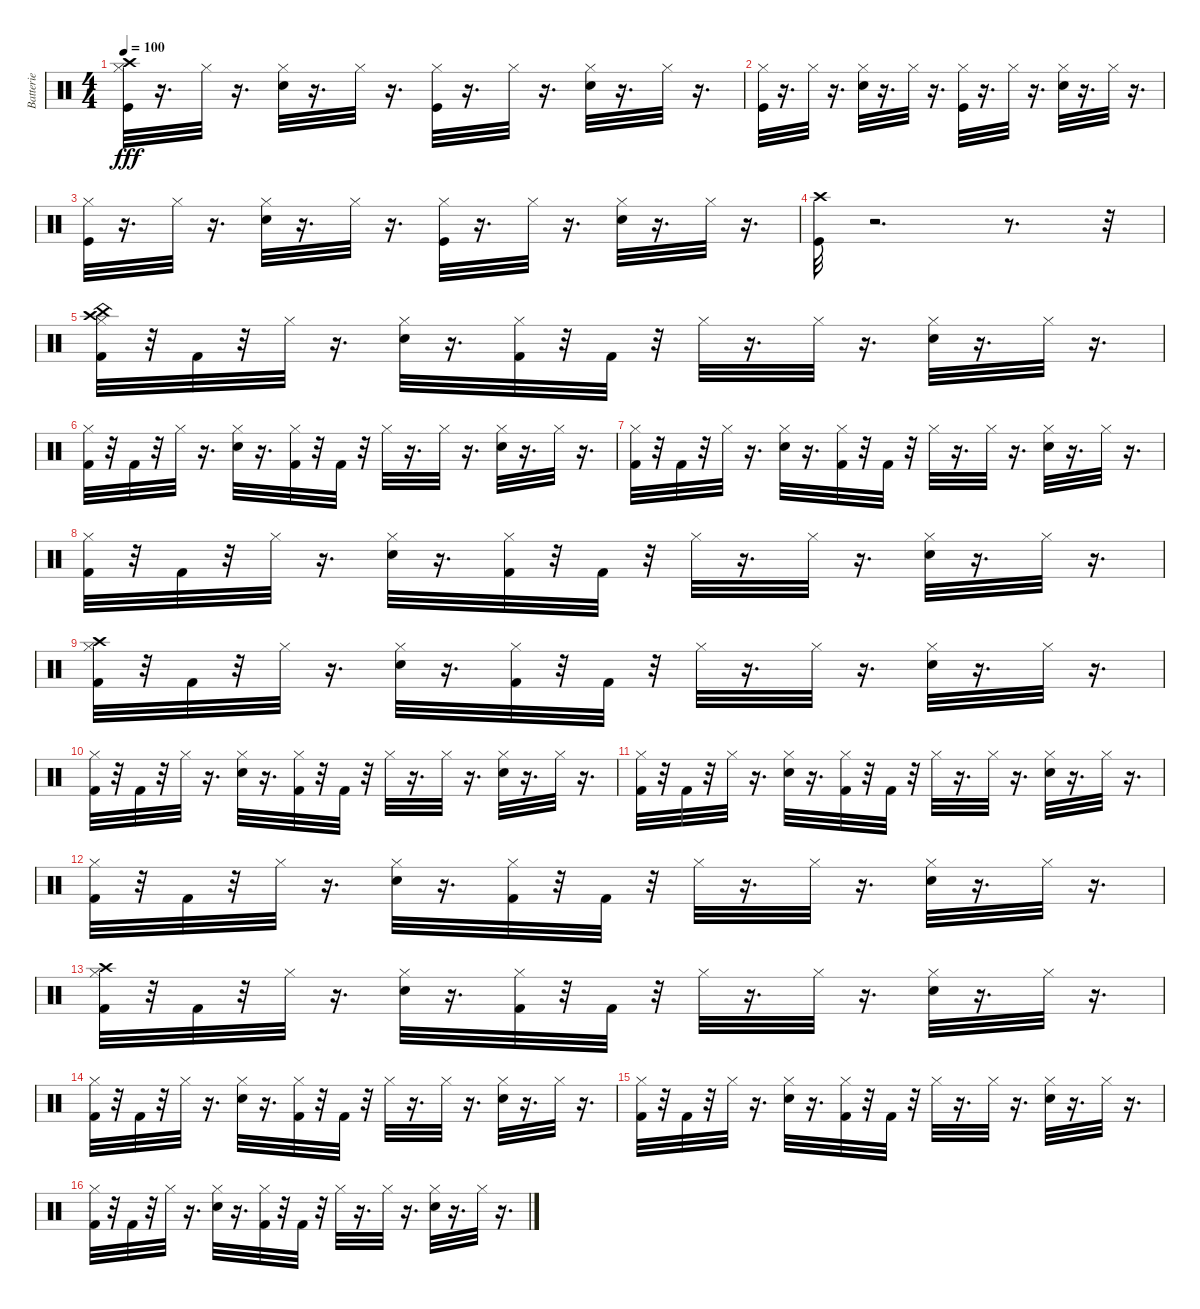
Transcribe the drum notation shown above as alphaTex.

\track ("Batterie" "Batterie") {instrument percussion}
\staff {score}
\articulation defaults
\ts (4 4)
\tempo 100
\clef neutral
\ks c
("Crash high (hit)" "Hi-Hat (closed)" "Kick (hit)").32{dy fff} r.16{d} "Hi-Hat (closed)".32 r.16{d} ("Hi-Hat (closed)" "Snare (hit) 2").32 r.16{d} "Hi-Hat (closed)".32 r.16{d} ("Hi-Hat (closed)" "Kick (hit)").32 r.16{d} "Hi-Hat (closed)".32 r.16{d} ("Hi-Hat (closed)" "Snare (hit) 2").32 r.16{d} "Hi-Hat (closed)".32 r.16{d} |
("Hi-Hat (closed)" "Kick (hit)").32 r.16{d} "Hi-Hat (closed)".32 r.16{d} ("Hi-Hat (closed)" "Snare (hit) 2").32 r.16{d} "Hi-Hat (closed)".32 r.16{d} ("Hi-Hat (closed)" "Kick (hit)").32 r.16{d} "Hi-Hat (closed)".32 r.16{d} ("Hi-Hat (closed)" "Snare (hit) 2").32 r.16{d} "Hi-Hat (closed)".32 r.16{d} |
("Hi-Hat (closed)" "Kick (hit)").32 r.16{d} "Hi-Hat (closed)".32 r.16{d} ("Hi-Hat (closed)" "Snare (hit) 2").32 r.16{d} "Hi-Hat (closed)".32 r.16{d} ("Hi-Hat (closed)" "Kick (hit)").32 r.16{d} "Hi-Hat (closed)".32 r.16{d} ("Hi-Hat (closed)" "Snare (hit) 2").32 r.16{d} "Hi-Hat (closed)".32 r.16{d} |
("Crash high (hit)" "Kick (hit)").32 r.2{d} r.8{d} r.32 |
("China (hit)" "Crash high (hit)" "Hi-Hat (closed)" "Kick (hit) 2").32 r.32 "Kick (hit) 2".32 r.32 "Hi-Hat (closed)".32 r.16{d} ("Hi-Hat (closed)" "Snare (hit) 2").32 r.16{d} ("Hi-Hat (closed)" "Kick (hit) 2").32 r.32 "Kick (hit) 2".32 r.32 "Hi-Hat (closed)".32 r.16{d} "Hi-Hat (closed)".32 r.16{d} ("Hi-Hat (closed)" "Snare (hit) 2").32 r.16{d} "Hi-Hat (closed)".32 r.16{d} |
("Hi-Hat (closed)" "Kick (hit) 2").32 r.32 "Kick (hit) 2".32 r.32 "Hi-Hat (closed)".32 r.16{d} ("Hi-Hat (closed)" "Snare (hit) 2").32 r.16{d} ("Hi-Hat (closed)" "Kick (hit) 2").32 r.32 "Kick (hit) 2".32 r.32 "Hi-Hat (closed)".32 r.16{d} "Hi-Hat (closed)".32 r.16{d} ("Hi-Hat (closed)" "Snare (hit) 2").32 r.16{d} "Hi-Hat (closed)".32 r.16{d} |
("Hi-Hat (closed)" "Kick (hit) 2").32 r.32 "Kick (hit) 2".32 r.32 "Hi-Hat (closed)".32 r.16{d} ("Hi-Hat (closed)" "Snare (hit) 2").32 r.16{d} ("Hi-Hat (closed)" "Kick (hit) 2").32 r.32 "Kick (hit) 2".32 r.32 "Hi-Hat (closed)".32 r.16{d} "Hi-Hat (closed)".32 r.16{d} ("Hi-Hat (closed)" "Snare (hit) 2").32 r.16{d} "Hi-Hat (closed)".32 r.16{d} |
("Hi-Hat (closed)" "Kick (hit) 2").32 r.32 "Kick (hit) 2".32 r.32 "Hi-Hat (closed)".32 r.16{d} ("Hi-Hat (closed)" "Snare (hit) 2").32 r.16{d} ("Hi-Hat (closed)" "Kick (hit) 2").32 r.32 "Kick (hit) 2".32 r.32 "Hi-Hat (closed)".32 r.16{d} "Hi-Hat (closed)".32 r.16{d} ("Hi-Hat (closed)" "Snare (hit) 2").32 r.16{d} "Hi-Hat (closed)".32 r.16{d} |
("Crash high (hit)" "Hi-Hat (closed)" "Kick (hit) 2").32 r.32 "Kick (hit) 2".32 r.32 "Hi-Hat (closed)".32 r.16{d} ("Hi-Hat (closed)" "Snare (hit) 2").32 r.16{d} ("Hi-Hat (closed)" "Kick (hit) 2").32 r.32 "Kick (hit) 2".32 r.32 "Hi-Hat (closed)".32 r.16{d} "Hi-Hat (closed)".32 r.16{d} ("Hi-Hat (closed)" "Snare (hit) 2").32 r.16{d} "Hi-Hat (closed)".32 r.16{d} |
("Hi-Hat (closed)" "Kick (hit) 2").32 r.32 "Kick (hit) 2".32 r.32 "Hi-Hat (closed)".32 r.16{d} ("Hi-Hat (closed)" "Snare (hit) 2").32 r.16{d} ("Hi-Hat (closed)" "Kick (hit) 2").32 r.32 "Kick (hit) 2".32 r.32 "Hi-Hat (closed)".32 r.16{d} "Hi-Hat (closed)".32 r.16{d} ("Hi-Hat (closed)" "Snare (hit) 2").32 r.16{d} "Hi-Hat (closed)".32 r.16{d} |
("Hi-Hat (closed)" "Kick (hit) 2").32 r.32 "Kick (hit) 2".32 r.32 "Hi-Hat (closed)".32 r.16{d} ("Hi-Hat (closed)" "Snare (hit) 2").32 r.16{d} ("Hi-Hat (closed)" "Kick (hit) 2").32 r.32 "Kick (hit) 2".32 r.32 "Hi-Hat (closed)".32 r.16{d} "Hi-Hat (closed)".32 r.16{d} ("Hi-Hat (closed)" "Snare (hit) 2").32 r.16{d} "Hi-Hat (closed)".32 r.16{d} |
("Hi-Hat (closed)" "Kick (hit) 2").32 r.32 "Kick (hit) 2".32 r.32 "Hi-Hat (closed)".32 r.16{d} ("Hi-Hat (closed)" "Snare (hit) 2").32 r.16{d} ("Hi-Hat (closed)" "Kick (hit) 2").32 r.32 "Kick (hit) 2".32 r.32 "Hi-Hat (closed)".32 r.16{d} "Hi-Hat (closed)".32 r.16{d} ("Hi-Hat (closed)" "Snare (hit) 2").32 r.16{d} "Hi-Hat (closed)".32 r.16{d} |
("Crash high (hit)" "Hi-Hat (closed)" "Kick (hit) 2").32 r.32 "Kick (hit) 2".32 r.32 "Hi-Hat (closed)".32 r.16{d} ("Hi-Hat (closed)" "Snare (hit) 2").32 r.16{d} ("Hi-Hat (closed)" "Kick (hit) 2").32 r.32 "Kick (hit) 2".32 r.32 "Hi-Hat (closed)".32 r.16{d} "Hi-Hat (closed)".32 r.16{d} ("Hi-Hat (closed)" "Snare (hit) 2").32 r.16{d} "Hi-Hat (closed)".32 r.16{d} |
("Hi-Hat (closed)" "Kick (hit) 2").32 r.32 "Kick (hit) 2".32 r.32 "Hi-Hat (closed)".32 r.16{d} ("Hi-Hat (closed)" "Snare (hit) 2").32 r.16{d} ("Hi-Hat (closed)" "Kick (hit) 2").32 r.32 "Kick (hit) 2".32 r.32 "Hi-Hat (closed)".32 r.16{d} "Hi-Hat (closed)".32 r.16{d} ("Hi-Hat (closed)" "Snare (hit) 2").32 r.16{d} "Hi-Hat (closed)".32 r.16{d} |
("Hi-Hat (closed)" "Kick (hit) 2").32 r.32 "Kick (hit) 2".32 r.32 "Hi-Hat (closed)".32 r.16{d} ("Hi-Hat (closed)" "Snare (hit) 2").32 r.16{d} ("Hi-Hat (closed)" "Kick (hit) 2").32 r.32 "Kick (hit) 2".32 r.32 "Hi-Hat (closed)".32 r.16{d} "Hi-Hat (closed)".32 r.16{d} ("Hi-Hat (closed)" "Snare (hit) 2").32 r.16{d} "Hi-Hat (closed)".32 r.16{d} |
("Hi-Hat (closed)" "Kick (hit) 2").32 r.32 "Kick (hit) 2".32 r.32 "Hi-Hat (closed)".32 r.16{d} ("Hi-Hat (closed)" "Snare (hit) 2").32 r.16{d} ("Hi-Hat (closed)" "Kick (hit) 2").32 r.32 "Kick (hit) 2".32 r.32 "Hi-Hat (closed)".32 r.16{d} "Hi-Hat (closed)".32 r.16{d} ("Hi-Hat (closed)" "Snare (hit) 2").32 r.16{d} "Hi-Hat (closed)".32 r.16{d}
